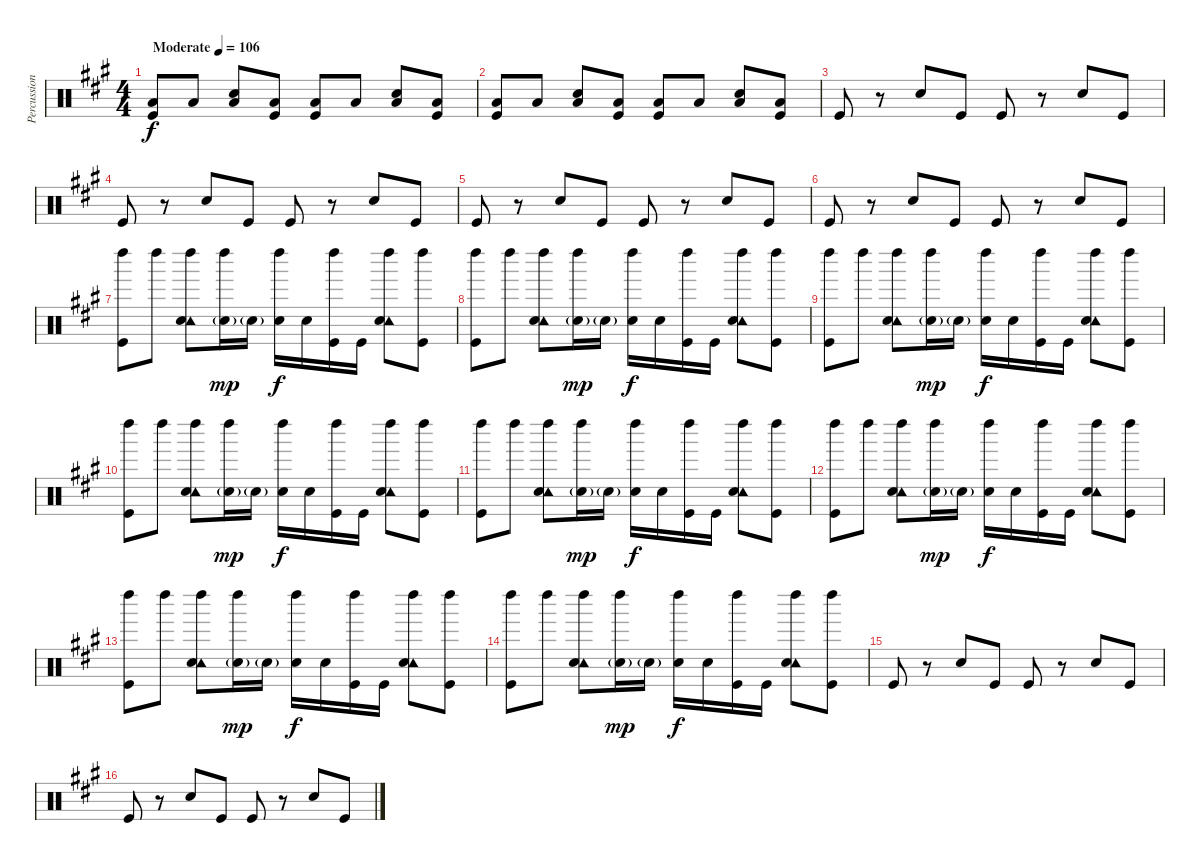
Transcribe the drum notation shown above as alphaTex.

\track ("Percussion" "Percussion") {instrument percussion}
\staff {score}
\articulation defaults
\ts (4 4)
\tempo (106 "Moderate")
\clef neutral
\ks f#minor
("Low Floor Tom (hit)" "Kick (hit)").8{dy f} "Low Floor Tom (hit)".8 ("Low Floor Tom (hit)" "Snare (hit) 2").8 ("Low Floor Tom (hit)" "Kick (hit)").8 ("Low Floor Tom (hit)" "Kick (hit)").8 "Low Floor Tom (hit)".8 ("Low Floor Tom (hit)" "Snare (hit) 2").8 ("Low Floor Tom (hit)" "Kick (hit)").8 |
("Low Floor Tom (hit)" "Kick (hit)").8 "Low Floor Tom (hit)".8 ("Low Floor Tom (hit)" "Snare (hit) 2").8 ("Low Floor Tom (hit)" "Kick (hit)").8 ("Low Floor Tom (hit)" "Kick (hit)").8 "Low Floor Tom (hit)".8 ("Low Floor Tom (hit)" "Snare (hit) 2").8 ("Low Floor Tom (hit)" "Kick (hit)").8 |
"Kick (hit)".8 r.8 "Snare (hit) 2".8 "Kick (hit)".8 "Kick (hit)".8 r.8 "Snare (hit) 2".8 "Kick (hit)".8 |
"Kick (hit)".8 r.8 "Snare (hit) 2".8 "Kick (hit)".8 "Kick (hit)".8 r.8 "Snare (hit) 2".8 "Kick (hit)".8 |
"Kick (hit)".8 r.8 "Snare (hit) 2".8 "Kick (hit)".8 "Kick (hit)".8 r.8 "Snare (hit) 2".8 "Kick (hit)".8 |
"Kick (hit)".8 r.8 "Snare (hit) 2".8 "Kick (hit)".8 "Kick (hit)".8 r.8 "Snare (hit) 2".8 "Kick (hit)".8 |
("Left Maraca (hit)" "Kick (hit)").8 "Left Maraca (hit)".8 ("Tambourine (hit)" "Left Maraca (hit)" "Snare (hit) 2").8 ("Left Maraca (hit)" "Snare (hit) 2"{g}).16{dy mp} "Snare (hit) 2"{g}.16 ("Left Maraca (hit)" "Snare (hit) 2").16{dy f} "Snare (hit) 2".16 ("Left Maraca (hit)" "Kick (hit)").16 "Kick (hit)".16 ("Tambourine (hit)" "Left Maraca (hit)" "Snare (hit) 2").8 ("Left Maraca (hit)" "Kick (hit)").8 |
("Left Maraca (hit)" "Kick (hit)").8 "Left Maraca (hit)".8 ("Tambourine (hit)" "Left Maraca (hit)" "Snare (hit) 2").8 ("Left Maraca (hit)" "Snare (hit) 2"{g}).16{dy mp} "Snare (hit) 2"{g}.16 ("Left Maraca (hit)" "Snare (hit) 2").16{dy f} "Snare (hit) 2".16 ("Left Maraca (hit)" "Kick (hit)").16 "Kick (hit)".16 ("Tambourine (hit)" "Left Maraca (hit)" "Snare (hit) 2").8 ("Left Maraca (hit)" "Kick (hit)").8 |
("Left Maraca (hit)" "Kick (hit)").8 "Left Maraca (hit)".8 ("Tambourine (hit)" "Left Maraca (hit)" "Snare (hit) 2").8 ("Left Maraca (hit)" "Snare (hit) 2"{g}).16{dy mp} "Snare (hit) 2"{g}.16 ("Left Maraca (hit)" "Snare (hit) 2").16{dy f} "Snare (hit) 2".16 ("Left Maraca (hit)" "Kick (hit)").16 "Kick (hit)".16 ("Tambourine (hit)" "Left Maraca (hit)" "Snare (hit) 2").8 ("Left Maraca (hit)" "Kick (hit)").8 |
("Left Maraca (hit)" "Kick (hit)").8 "Left Maraca (hit)".8 ("Tambourine (hit)" "Left Maraca (hit)" "Snare (hit) 2").8 ("Left Maraca (hit)" "Snare (hit) 2"{g}).16{dy mp} "Snare (hit) 2"{g}.16 ("Left Maraca (hit)" "Snare (hit) 2").16{dy f} "Snare (hit) 2".16 ("Left Maraca (hit)" "Kick (hit)").16 "Kick (hit)".16 ("Tambourine (hit)" "Left Maraca (hit)" "Snare (hit) 2").8 ("Left Maraca (hit)" "Kick (hit)").8 |
("Left Maraca (hit)" "Kick (hit)").8 "Left Maraca (hit)".8 ("Tambourine (hit)" "Left Maraca (hit)" "Snare (hit) 2").8 ("Left Maraca (hit)" "Snare (hit) 2"{g}).16{dy mp} "Snare (hit) 2"{g}.16 ("Left Maraca (hit)" "Snare (hit) 2").16{dy f} "Snare (hit) 2".16 ("Left Maraca (hit)" "Kick (hit)").16 "Kick (hit)".16 ("Tambourine (hit)" "Left Maraca (hit)" "Snare (hit) 2").8 ("Left Maraca (hit)" "Kick (hit)").8 |
("Left Maraca (hit)" "Kick (hit)").8 "Left Maraca (hit)".8 ("Tambourine (hit)" "Left Maraca (hit)" "Snare (hit) 2").8 ("Left Maraca (hit)" "Snare (hit) 2"{g}).16{dy mp} "Snare (hit) 2"{g}.16 ("Left Maraca (hit)" "Snare (hit) 2").16{dy f} "Snare (hit) 2".16 ("Left Maraca (hit)" "Kick (hit)").16 "Kick (hit)".16 ("Tambourine (hit)" "Left Maraca (hit)" "Snare (hit) 2").8 ("Left Maraca (hit)" "Kick (hit)").8 |
("Left Maraca (hit)" "Kick (hit)").8 "Left Maraca (hit)".8 ("Tambourine (hit)" "Left Maraca (hit)" "Snare (hit) 2").8 ("Left Maraca (hit)" "Snare (hit) 2"{g}).16{dy mp} "Snare (hit) 2"{g}.16 ("Left Maraca (hit)" "Snare (hit) 2").16{dy f} "Snare (hit) 2".16 ("Left Maraca (hit)" "Kick (hit)").16 "Kick (hit)".16 ("Tambourine (hit)" "Left Maraca (hit)" "Snare (hit) 2").8 ("Left Maraca (hit)" "Kick (hit)").8 |
("Left Maraca (hit)" "Kick (hit)").8 "Left Maraca (hit)".8 ("Tambourine (hit)" "Left Maraca (hit)" "Snare (hit) 2").8 ("Left Maraca (hit)" "Snare (hit) 2"{g}).16{dy mp} "Snare (hit) 2"{g}.16 ("Left Maraca (hit)" "Snare (hit) 2").16{dy f} "Snare (hit) 2".16 ("Left Maraca (hit)" "Kick (hit)").16 "Kick (hit)".16 ("Tambourine (hit)" "Left Maraca (hit)" "Snare (hit) 2").8 ("Left Maraca (hit)" "Kick (hit)").8 |
"Kick (hit)".8 r.8 "Snare (hit) 2".8 "Kick (hit)".8 "Kick (hit)".8 r.8 "Snare (hit) 2".8 "Kick (hit)".8 |
"Kick (hit)".8 r.8 "Snare (hit) 2".8 "Kick (hit)".8 "Kick (hit)".8 r.8 "Snare (hit) 2".8 "Kick (hit)".8
